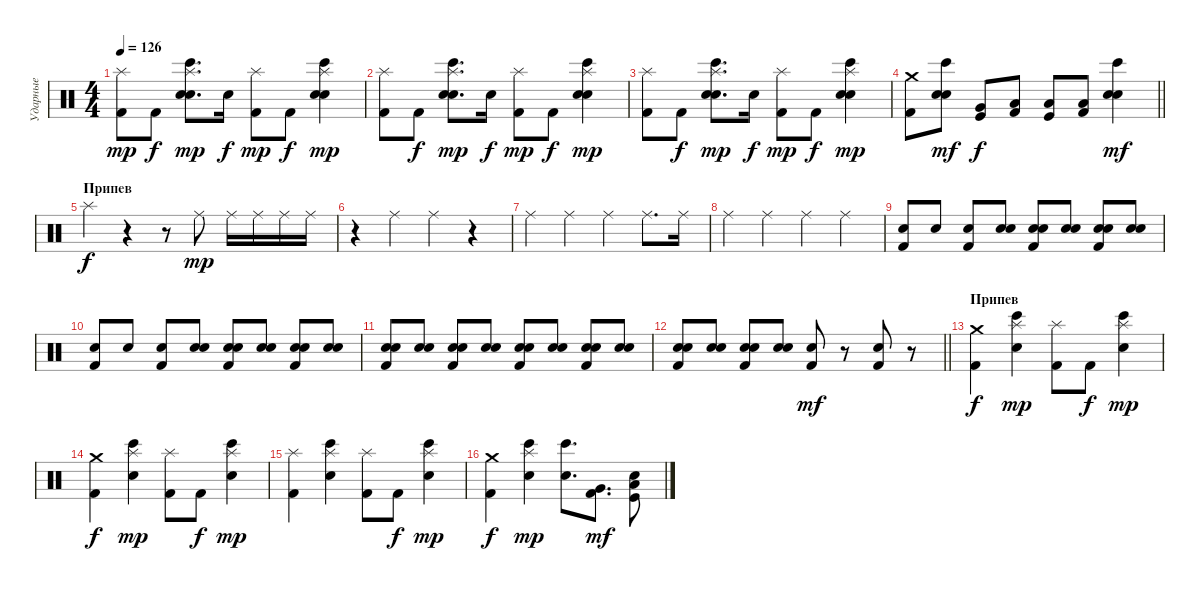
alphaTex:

\track ("Ударные" "Ударные") {instrument percussion}
\staff {score}
\articulation defaults
\ts (4 4)
\tempo 126
\clef neutral
\ks c
("Splash (hit)" "Kick (hit) 2").8{dy mp} "Kick (hit) 2".8{dy f} ("Splash (hit)" "Electric Snare (hit)" "Bongo High (hit)" "Snare (hit) 2").8{d dy mp} "Electric Snare (hit)".16{dy f} ("Splash (hit)" "Kick (hit) 2").8{dy mp} "Kick (hit) 2".8{dy f} ("Splash (hit)" "Electric Snare (hit)" "Bongo High (hit)" "Snare (hit) 2").4{dy mp} |
("Splash (hit)" "Kick (hit) 2").8 "Kick (hit) 2".8{dy f} ("Splash (hit)" "Electric Snare (hit)" "Bongo High (hit)" "Snare (hit) 2").8{d dy mp} "Electric Snare (hit)".16{dy f} ("Splash (hit)" "Kick (hit) 2").8{dy mp} "Kick (hit) 2".8{dy f} ("Splash (hit)" "Electric Snare (hit)" "Bongo High (hit)" "Snare (hit) 2").4{dy mp} |
("Splash (hit)" "Kick (hit) 2").8 "Kick (hit) 2".8{dy f} ("Splash (hit)" "Electric Snare (hit)" "Bongo High (hit)" "Snare (hit) 2").8{d dy mp} "Electric Snare (hit)".16{dy f} ("Splash (hit)" "Kick (hit) 2").8{dy mp} "Kick (hit) 2".8{dy f} ("Splash (hit)" "Electric Snare (hit)" "Bongo High (hit)" "Snare (hit) 2").4{dy mp} |
\barLineRight lightlight
("Crash medium (hit)" "Kick (hit) 2").8 ("Electric Snare (hit)" "Bongo High (hit)" "Snare (hit) 2").8{dy mf} ("Very Low Tom (hit)" "Kick (hit)").8{dy f} ("Low Floor Tom (hit)" "Kick (hit) 2").8 ("Low Tom (hit)" "Kick (hit)").8 ("Low Floor Tom (hit)" "Kick (hit) 2").8 ("Electric Snare (hit)" "Bongo High (hit)" "Snare (hit) 2").4{dy mf} |
\section ("" "Припев")
"Splash (hit)".4{dy f} r.4 r.8 "Ride (middle)".8{dy mp} "Ride (middle)".16 "Ride (middle)".16 "Ride (middle)".16 "Ride (middle)".16 |
r.4 "Ride (middle)".4 "Ride (middle)".4 r.4 |
"Ride (middle)".4 "Ride (middle)".4 "Ride (middle)".4 "Ride (middle)".8{d} "Ride (middle)".16 |
"Ride (middle)".4 "Ride (middle)".4 "Ride (middle)".4 "Ride (middle)".4 |
("Electric Snare (hit)" "Kick (hit) 2").8 "Electric Snare (hit)".8 ("Electric Snare (hit)" "Kick (hit) 2").8 ("Electric Snare (hit)" "Snare (hit) 2").8 ("Electric Snare (hit)" "Snare (hit) 2" "Kick (hit) 2").8 ("Electric Snare (hit)" "Snare (hit) 2").8 ("Electric Snare (hit)" "Snare (hit) 2" "Kick (hit) 2").8 ("Electric Snare (hit)" "Snare (hit) 2").8 |
("Electric Snare (hit)" "Kick (hit) 2").8 "Electric Snare (hit)".8 ("Electric Snare (hit)" "Kick (hit) 2").8 ("Electric Snare (hit)" "Snare (hit) 2").8 ("Electric Snare (hit)" "Snare (hit) 2" "Kick (hit) 2").8 ("Electric Snare (hit)" "Snare (hit) 2").8 ("Electric Snare (hit)" "Snare (hit) 2" "Kick (hit) 2").8 ("Electric Snare (hit)" "Snare (hit) 2").8 |
("Electric Snare (hit)" "Snare (hit) 2" "Kick (hit) 2").8 ("Electric Snare (hit)" "Snare (hit) 2").8 ("Electric Snare (hit)" "Snare (hit) 2" "Kick (hit) 2").8 ("Electric Snare (hit)" "Snare (hit) 2").8 ("Electric Snare (hit)" "Snare (hit) 2" "Kick (hit) 2").8 ("Electric Snare (hit)" "Snare (hit) 2").8 ("Electric Snare (hit)" "Snare (hit) 2" "Kick (hit) 2").8 ("Electric Snare (hit)" "Snare (hit) 2").8 |
\barLineRight lightlight
("Electric Snare (hit)" "Snare (hit) 2" "Kick (hit) 2").8 ("Electric Snare (hit)" "Snare (hit) 2").8 ("Electric Snare (hit)" "Snare (hit) 2" "Kick (hit) 2").8 ("Electric Snare (hit)" "Snare (hit) 2").8 ("Snare (hit) 2" "Kick (hit) 2").8{dy mf} r.8 ("Snare (hit) 2" "Kick (hit) 2").8 r.8 |
\section ("" "Припев")
("Crash medium (hit)" "Kick (hit) 2").4{dy f} ("Splash (hit)" "Electric Snare (hit)" "Bongo High (hit)").4{dy mp} ("Splash (hit)" "Kick (hit) 2").8 "Kick (hit) 2".8{dy f} ("Splash (hit)" "Electric Snare (hit)" "Bongo High (hit)").4{dy mp} |
("Crash medium (hit)" "Kick (hit) 2").4{dy f} ("Splash (hit)" "Electric Snare (hit)" "Bongo High (hit)").4{dy mp} ("Splash (hit)" "Kick (hit) 2").8 "Kick (hit) 2".8{dy f} ("Splash (hit)" "Electric Snare (hit)" "Bongo High (hit)").4{dy mp} |
("Splash (hit)" "Kick (hit) 2").4 ("Splash (hit)" "Electric Snare (hit)" "Bongo High (hit)").4 ("Splash (hit)" "Kick (hit) 2").8 "Kick (hit) 2".8{dy f} ("Splash (hit)" "Electric Snare (hit)" "Bongo High (hit)").4{dy mp} |
("Crash medium (hit)" "Kick (hit) 2").4{dy f} ("Splash (hit)" "Electric Snare (hit)" "Bongo High (hit)").4{dy mp} ("Electric Snare (hit)" "Bongo High (hit)").8{d} ("Very Low Tom (hit)" "Kick (hit) 2").8{d dy mf} ("Snare (hit) 2" "Low Floor Tom (hit)" "Kick (hit)").8
